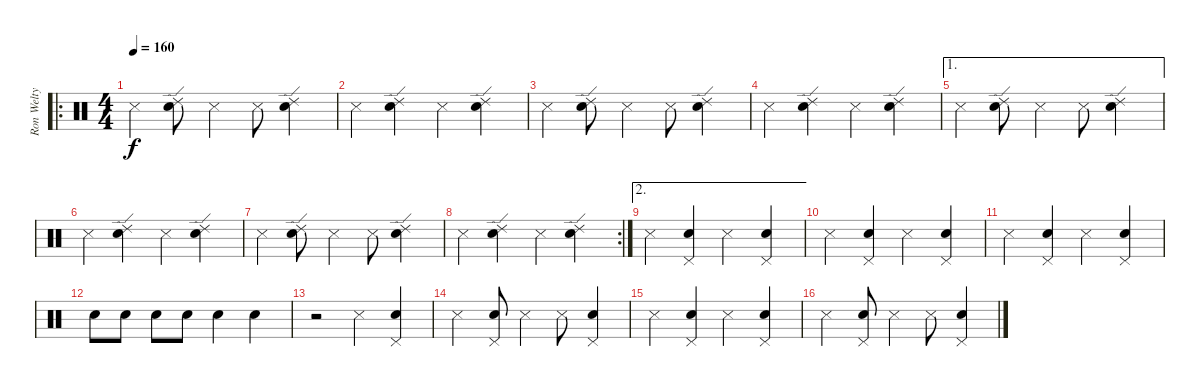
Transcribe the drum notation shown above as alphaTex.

\track ("Ron Welty" "Ron Welty") {instrument percussion}
\staff {score}
\articulation defaults
\ro
\ts (4 4)
\tempo 160
\clef neutral
\ks c "Metronome (hit)".4{dy f}
("Ride (edge) 2" "Snare (hit) 2").8 "Metronome (hit)".4 "Metronome (hit)".8 ("Ride (edge) 2" "Snare (hit) 2").4 |
"Metronome (hit)".4 ("Ride (edge) 2" "Snare (hit) 2").4 "Metronome (hit)".4 ("Ride (edge) 2" "Snare (hit) 2").4 |
"Metronome (hit)".4 ("Ride (edge) 2" "Snare (hit) 2").8 "Metronome (hit)".4 "Metronome (hit)".8 ("Ride (edge) 2" "Snare (hit) 2").4 |
"Metronome (hit)".4 ("Ride (edge) 2" "Snare (hit) 2").4 "Metronome (hit)".4 ("Ride (edge) 2" "Snare (hit) 2").4 |
\ae 1 "Metronome (hit)".4
("Ride (edge) 2" "Snare (hit) 2").8 "Metronome (hit)".4 "Metronome (hit)".8 ("Ride (edge) 2" "Snare (hit) 2").4 |
"Metronome (hit)".4 ("Ride (edge) 2" "Snare (hit) 2").4 "Metronome (hit)".4 ("Ride (edge) 2" "Snare (hit) 2").4 |
"Metronome (hit)".4 ("Ride (edge) 2" "Snare (hit) 2").8 "Metronome (hit)".4 "Metronome (hit)".8 ("Ride (edge) 2" "Snare (hit) 2").4 |
\rc 2 "Metronome (hit)".4
("Ride (edge) 2" "Snare (hit) 2").4 "Metronome (hit)".4 ("Ride (edge) 2" "Snare (hit) 2").4 |
\ae 2 "Metronome (hit)".4
("Pedal Hi-Hat (hit)" "Snare (hit) 2").4 "Metronome (hit)".4 ("Pedal Hi-Hat (hit)" "Snare (hit) 2").4 |
"Metronome (hit)".4 ("Pedal Hi-Hat (hit)" "Snare (hit) 2").4 "Metronome (hit)".4 ("Pedal Hi-Hat (hit)" "Snare (hit) 2").4 |
"Metronome (hit)".4 ("Pedal Hi-Hat (hit)" "Snare (hit) 2").4 "Metronome (hit)".4 ("Pedal Hi-Hat (hit)" "Snare (hit) 2").4 |
"Snare (hit) 2".8 "Snare (hit) 2".8 "Snare (hit) 2".8 "Snare (hit) 2".8 "Snare (hit) 2".4 "Snare (hit) 2".4 |
r.2 "Metronome (hit)".4 ("Pedal Hi-Hat (hit)" "Snare (hit) 2").4 |
"Metronome (hit)".4 ("Pedal Hi-Hat (hit)" "Snare (hit) 2").8 "Metronome (hit)".4 "Metronome (hit)".8 ("Pedal Hi-Hat (hit)" "Snare (hit) 2").4 |
"Metronome (hit)".4 ("Pedal Hi-Hat (hit)" "Snare (hit) 2").4 "Metronome (hit)".4 ("Pedal Hi-Hat (hit)" "Snare (hit) 2").4 |
"Metronome (hit)".4 ("Pedal Hi-Hat (hit)" "Snare (hit) 2").8 "Metronome (hit)".4 "Metronome (hit)".8 ("Pedal Hi-Hat (hit)" "Snare (hit) 2").4
